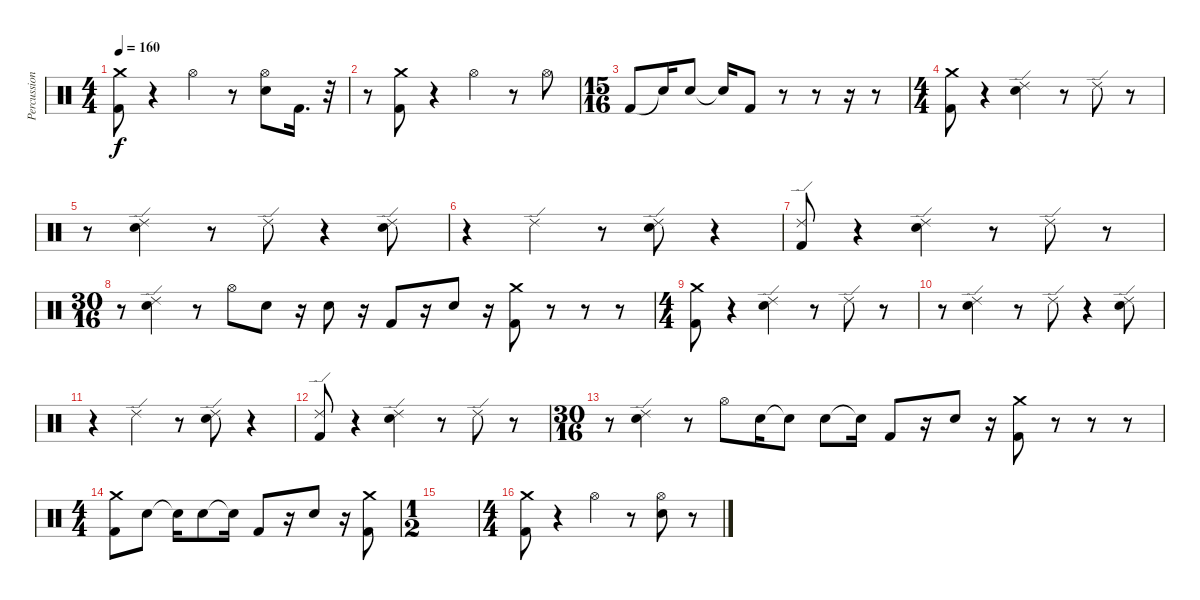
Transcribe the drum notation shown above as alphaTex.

\track ("Percussion" "Percussion") {instrument percussion}
\staff {score}
\articulation defaults
\ts (4 4)
\tempo 160
\clef neutral
\ks c
("Crash medium (hit)" "Kick (hit) 2").8{dy f} r.4 "Hi-Hat (open)".4 r.8 ("Hi-Hat (open)" "Electric Snare (hit)").8 "Kick (hit) 2".16{d} r.32 |
r.8 ("Crash medium (hit)" "Kick (hit) 2").8 r.4 "Hi-Hat (open)".4 r.8 "Hi-Hat (open)".8 |
\ts (15 16)
"Kick (hit) 2".8 "Electric Snare (hit)"{t}.16 "Electric Snare (hit)".8 "Snare (hit)"{t}.16 "Kick (hit) 2".8 r.8 r.8 r.16 r.8 |
\ts (4 4)
("Crash medium (hit)" "Kick (hit) 2").8 r.4 ("Ride (edge) 2" "Electric Snare (hit)").4 r.8 "Ride (edge) 2".8 r.8 |
r.8 ("Ride (edge) 2" "Electric Snare (hit)").4 r.8 "Ride (edge) 2".8 r.4 ("Ride (edge) 2" "Electric Snare (hit)").8 |
r.4 "Ride (edge) 2".4 r.8 ("Ride (edge) 2" "Electric Snare (hit)").8 r.4 |
("Ride (edge) 2" "Kick (hit) 2").8 r.4 ("Ride (edge) 2" "Electric Snare (hit)").4 r.8 "Ride (edge) 2".8 r.8 |
\ts (30 16)
r.8 ("Ride (edge) 2" "Electric Snare (hit)").4 r.8 "Hi-Hat (open)".8 "Electric Snare (hit)".8 r.16 "Electric Snare (hit)".8 r.16 "Kick (hit) 2".8 r.16 "Electric Snare (hit)".8 r.16 ("Crash medium (hit)" "Kick (hit) 2").8 r.8 r.8 r.8 |
\ts (4 4)
("Crash medium (hit)" "Kick (hit) 2").8 r.4 ("Ride (edge) 2" "Electric Snare (hit)").4 r.8 "Ride (edge) 2".8 r.8 |
r.8 ("Ride (edge) 2" "Electric Snare (hit)").4 r.8 "Ride (edge) 2".8 r.4 ("Ride (edge) 2" "Electric Snare (hit)").8 |
r.4 "Ride (edge) 2".4 r.8 ("Ride (edge) 2" "Electric Snare (hit)").8 r.4 |
("Ride (edge) 2" "Kick (hit) 2").8 r.4 ("Ride (edge) 2" "Electric Snare (hit)").4 r.8 "Ride (edge) 2".8 r.8 |
\ts (30 16)
r.8 ("Ride (edge) 2" "Electric Snare (hit)").4 r.8 "Hi-Hat (open)".8 "Electric Snare (hit)".16 "Electric Snare (hit)"{t}.8 "Electric Snare (hit)".8 "Snare (hit)"{t}.16 "Kick (hit) 2".8 r.16 "Electric Snare (hit)".8 r.16 ("Crash medium (hit)" "Kick (hit) 2").8 r.8 r.8 r.8 |
\ts (4 4)
("Crash medium (hit)" "Kick (hit) 2").8 "Electric Snare (hit)".8 "Electric Snare (hit)"{t}.16 "Electric Snare (hit)".8 "Snare (hit)"{t}.16 "Kick (hit) 2".8 r.16 "Electric Snare (hit)".8 r.16 ("Crash medium (hit)" "Kick (hit) 2").8 |
\ts (1 2)
|
\ts (4 4)
("Crash medium (hit)" "Kick (hit) 2").8 r.4 "Hi-Hat (open)".4 r.8 ("Hi-Hat (open)" "Electric Snare (hit)").8 r.8
